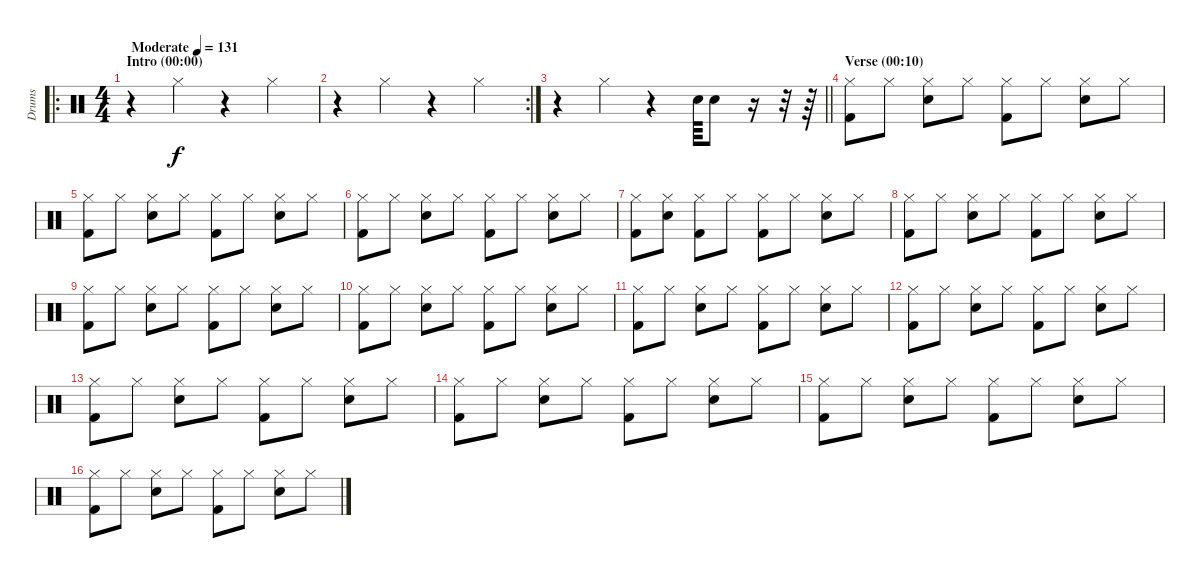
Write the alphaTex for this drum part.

\track ("Drums" "Drums") {instrument percussion}
\staff {score}
\articulation defaults
\ro
\ts (4 4)
\section ("" "Intro (00:00)")
\tempo (131 "Moderate")
\clef neutral
\ks c
r.4{dy f} "Hi-Hat (closed)".4 r.4 "Hi-Hat (closed)".4 |
\rc 2
r.4 "Hi-Hat (closed)".4 r.4 "Hi-Hat (closed)".4 |
\barLineRight lightlight
r.4 "Hi-Hat (closed)".4 r.4 "Snare (hit) 2".64 "Snare (hit) 2".8 r.16 r.32 r.64 |
\section ("" "Verse (00:10)")
("Kick (hit) 2" "Hi-Hat (closed)").8 "Hi-Hat (closed)".8 ("Hi-Hat (closed)" "Snare (hit) 2").8 "Hi-Hat (closed)".8 ("Hi-Hat (closed)" "Kick (hit) 2").8 "Hi-Hat (closed)".8 ("Hi-Hat (closed)" "Snare (hit) 2").8 "Hi-Hat (closed)".8 |
("Kick (hit) 2" "Hi-Hat (closed)").8 "Hi-Hat (closed)".8 ("Hi-Hat (closed)" "Snare (hit) 2").8 "Hi-Hat (closed)".8 ("Hi-Hat (closed)" "Kick (hit) 2").8 "Hi-Hat (closed)".8 ("Hi-Hat (closed)" "Snare (hit) 2").8 "Hi-Hat (closed)".8 |
("Kick (hit) 2" "Hi-Hat (closed)").8 "Hi-Hat (closed)".8 ("Hi-Hat (closed)" "Snare (hit) 2").8 "Hi-Hat (closed)".8 ("Hi-Hat (closed)" "Kick (hit) 2").8 "Hi-Hat (closed)".8 ("Hi-Hat (closed)" "Snare (hit) 2").8 "Hi-Hat (closed)".8 |
("Kick (hit) 2" "Hi-Hat (closed)").8 ("Hi-Hat (closed)" "Snare (hit) 2").8 ("Hi-Hat (closed)" "Kick (hit) 2").8 "Hi-Hat (closed)".8 ("Hi-Hat (closed)" "Kick (hit) 2").8 "Hi-Hat (closed)".8 ("Hi-Hat (closed)" "Snare (hit) 2").8 "Hi-Hat (closed)".8 |
("Kick (hit) 2" "Hi-Hat (closed)").8 "Hi-Hat (closed)".8 ("Hi-Hat (closed)" "Snare (hit) 2").8 "Hi-Hat (closed)".8 ("Hi-Hat (closed)" "Kick (hit) 2").8 "Hi-Hat (closed)".8 ("Hi-Hat (closed)" "Snare (hit) 2").8 "Hi-Hat (closed)".8 |
("Kick (hit) 2" "Hi-Hat (closed)").8 "Hi-Hat (closed)".8 ("Hi-Hat (closed)" "Snare (hit) 2").8 "Hi-Hat (closed)".8 ("Hi-Hat (closed)" "Kick (hit) 2").8 "Hi-Hat (closed)".8 ("Hi-Hat (closed)" "Snare (hit) 2").8 "Hi-Hat (closed)".8 |
("Kick (hit) 2" "Hi-Hat (closed)").8 "Hi-Hat (closed)".8 ("Hi-Hat (closed)" "Snare (hit) 2").8 "Hi-Hat (closed)".8 ("Hi-Hat (closed)" "Kick (hit) 2").8 "Hi-Hat (closed)".8 ("Hi-Hat (closed)" "Snare (hit) 2").8 "Hi-Hat (closed)".8 |
("Kick (hit) 2" "Hi-Hat (closed)").8 "Hi-Hat (closed)".8 ("Hi-Hat (closed)" "Snare (hit) 2").8 "Hi-Hat (closed)".8 ("Hi-Hat (closed)" "Kick (hit) 2").8 "Hi-Hat (closed)".8 ("Hi-Hat (closed)" "Snare (hit) 2").8 "Hi-Hat (closed)".8 |
("Kick (hit) 2" "Hi-Hat (closed)").8 "Hi-Hat (closed)".8 ("Hi-Hat (closed)" "Snare (hit) 2").8 "Hi-Hat (closed)".8 ("Hi-Hat (closed)" "Kick (hit) 2").8 "Hi-Hat (closed)".8 ("Hi-Hat (closed)" "Snare (hit) 2").8 "Hi-Hat (closed)".8 |
("Kick (hit) 2" "Hi-Hat (closed)").8 "Hi-Hat (closed)".8 ("Hi-Hat (closed)" "Snare (hit) 2").8 "Hi-Hat (closed)".8 ("Hi-Hat (closed)" "Kick (hit) 2").8 "Hi-Hat (closed)".8 ("Hi-Hat (closed)" "Snare (hit) 2").8 "Hi-Hat (closed)".8 |
("Kick (hit) 2" "Hi-Hat (closed)").8 "Hi-Hat (closed)".8 ("Hi-Hat (closed)" "Snare (hit) 2").8 "Hi-Hat (closed)".8 ("Hi-Hat (closed)" "Kick (hit) 2").8 "Hi-Hat (closed)".8 ("Hi-Hat (closed)" "Snare (hit) 2").8 "Hi-Hat (closed)".8 |
("Kick (hit) 2" "Hi-Hat (closed)").8 "Hi-Hat (closed)".8 ("Hi-Hat (closed)" "Snare (hit) 2").8 "Hi-Hat (closed)".8 ("Hi-Hat (closed)" "Kick (hit) 2").8 "Hi-Hat (closed)".8 ("Hi-Hat (closed)" "Snare (hit) 2").8 "Hi-Hat (closed)".8 |
("Kick (hit) 2" "Hi-Hat (closed)").8 "Hi-Hat (closed)".8 ("Hi-Hat (closed)" "Snare (hit) 2").8 "Hi-Hat (closed)".8 ("Hi-Hat (closed)" "Kick (hit) 2").8 "Hi-Hat (closed)".8 ("Hi-Hat (closed)" "Snare (hit) 2").8 "Hi-Hat (closed)".8
